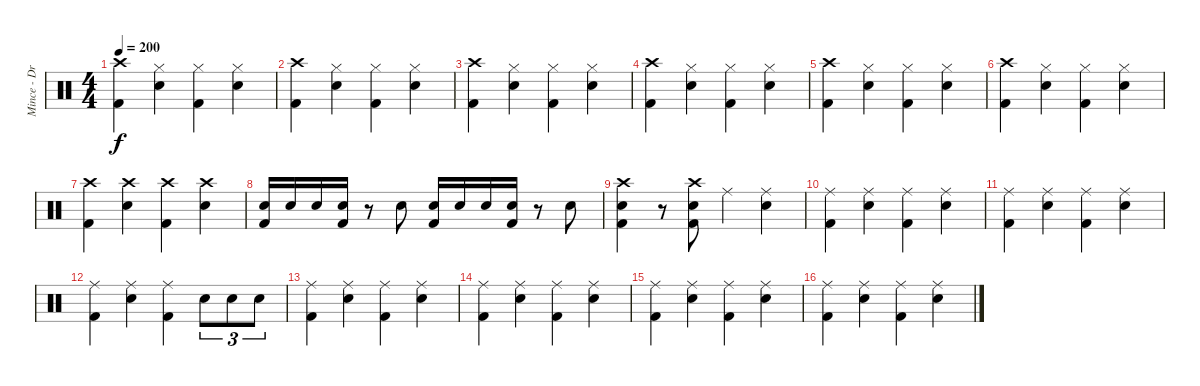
\track ("Mince - Drums" "Mince - Dr") {instrument percussion}
\staff {score}
\articulation defaults
\ts (4 4)
\tempo 200
\clef neutral
\ks c
("Crash high (hit)" "Kick (hit) 2").4{dy f} ("Hi-Hat (closed)" "Electric Snare (hit)").4 ("Hi-Hat (closed)" "Kick (hit) 2").4 ("Hi-Hat (closed)" "Electric Snare (hit)").4 |
("Crash high (hit)" "Kick (hit) 2").4 ("Hi-Hat (closed)" "Electric Snare (hit)").4 ("Hi-Hat (closed)" "Kick (hit) 2").4 ("Hi-Hat (closed)" "Electric Snare (hit)").4 |
("Crash high (hit)" "Kick (hit) 2").4 ("Hi-Hat (closed)" "Electric Snare (hit)").4 ("Hi-Hat (closed)" "Kick (hit) 2").4 ("Hi-Hat (closed)" "Electric Snare (hit)").4 |
("Crash high (hit)" "Kick (hit) 2").4 ("Hi-Hat (closed)" "Electric Snare (hit)").4 ("Hi-Hat (closed)" "Kick (hit) 2").4 ("Hi-Hat (closed)" "Electric Snare (hit)").4 |
("Crash high (hit)" "Kick (hit) 2").4 ("Hi-Hat (closed)" "Electric Snare (hit)").4 ("Hi-Hat (closed)" "Kick (hit) 2").4 ("Hi-Hat (closed)" "Electric Snare (hit)").4 |
("Crash high (hit)" "Kick (hit) 2").4 ("Hi-Hat (closed)" "Electric Snare (hit)").4 ("Hi-Hat (closed)" "Kick (hit) 2").4 ("Hi-Hat (closed)" "Electric Snare (hit)").4 |
("Crash high (hit)" "Kick (hit) 2").4 ("Crash high (hit)" "Electric Snare (hit)").4 ("Crash high (hit)" "Kick (hit) 2").4 ("Crash high (hit)" "Electric Snare (hit)").4 |
("Electric Snare (hit)" "Kick (hit) 2").16 "Electric Snare (hit)".16 "Electric Snare (hit)".16 ("Electric Snare (hit)" "Kick (hit) 2").16 r.8 "Electric Snare (hit)".8 ("Electric Snare (hit)" "Kick (hit) 2").16 "Electric Snare (hit)".16 "Electric Snare (hit)".16 ("Electric Snare (hit)" "Kick (hit) 2").16 r.8 "Electric Snare (hit)".8 |
("Crash high (hit)" "Electric Snare (hit)" "Kick (hit) 2").4 r.8 ("Crash high (hit)" "Electric Snare (hit)" "Kick (hit) 2").8 "Ride (middle)".4 ("Ride (middle)" "Electric Snare (hit)").4 |
("Ride (middle)" "Kick (hit) 2").4 ("Ride (middle)" "Electric Snare (hit)").4 ("Ride (middle)" "Kick (hit) 2").4 ("Ride (middle)" "Electric Snare (hit)").4 |
("Ride (middle)" "Kick (hit) 2").4 ("Ride (middle)" "Electric Snare (hit)").4 ("Ride (middle)" "Kick (hit) 2").4 ("Ride (middle)" "Electric Snare (hit)").4 |
("Ride (middle)" "Kick (hit) 2").4 ("Ride (middle)" "Electric Snare (hit)").4 ("Ride (middle)" "Kick (hit) 2").4 "Electric Snare (hit)".8{tu (3 2)} "Electric Snare (hit)".8{tu (3 2)} "Electric Snare (hit)".8{tu (3 2)} |
("Ride (middle)" "Kick (hit) 2").4 ("Ride (middle)" "Electric Snare (hit)").4 ("Ride (middle)" "Kick (hit) 2").4 ("Ride (middle)" "Electric Snare (hit)").4 |
("Ride (middle)" "Kick (hit) 2").4 ("Ride (middle)" "Electric Snare (hit)").4 ("Ride (middle)" "Kick (hit) 2").4 ("Ride (middle)" "Electric Snare (hit)").4 |
("Ride (middle)" "Kick (hit) 2").4 ("Ride (middle)" "Electric Snare (hit)").4 ("Ride (middle)" "Kick (hit) 2").4 ("Ride (middle)" "Electric Snare (hit)").4 |
("Ride (middle)" "Kick (hit) 2").4 ("Ride (middle)" "Electric Snare (hit)").4 ("Ride (middle)" "Kick (hit) 2").4 ("Ride (middle)" "Electric Snare (hit)").4
